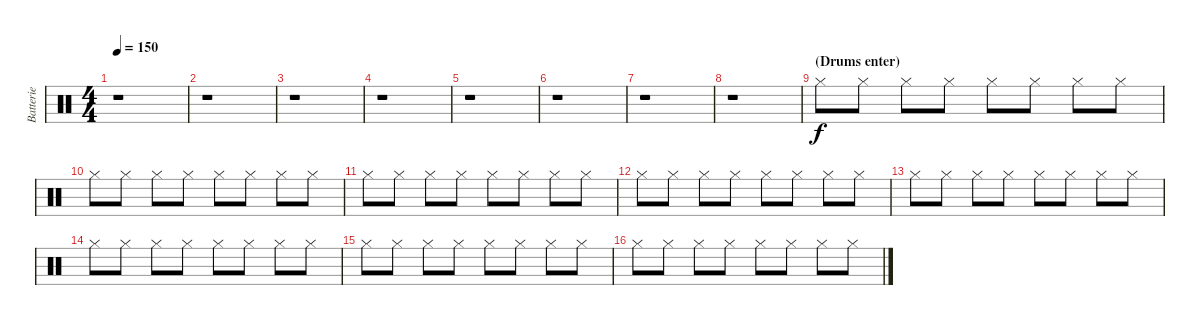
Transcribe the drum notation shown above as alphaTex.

\track ("Batterie" "Batterie") {instrument percussion}
\staff {score}
\articulation defaults
\ts (4 4)
\tempo 150
\clef neutral
\ks c
r.1{dy f} |
r.1 |
r.1 |
r.1 |
r.1 |
r.1 |
r.1 |
r.1 |
\section ("" "(Drums enter)")
"Hi-Hat (closed)".8{volume 12} "Hi-Hat (closed)".8 "Hi-Hat (closed)".8 "Hi-Hat (closed)".8 "Hi-Hat (closed)".8 "Hi-Hat (closed)".8 "Hi-Hat (closed)".8 "Hi-Hat (closed)".8 |
"Hi-Hat (closed)".8 "Hi-Hat (closed)".8 "Hi-Hat (closed)".8 "Hi-Hat (closed)".8 "Hi-Hat (closed)".8 "Hi-Hat (closed)".8 "Hi-Hat (closed)".8 "Hi-Hat (closed)".8 |
"Hi-Hat (closed)".8 "Hi-Hat (closed)".8 "Hi-Hat (closed)".8 "Hi-Hat (closed)".8 "Hi-Hat (closed)".8 "Hi-Hat (closed)".8 "Hi-Hat (closed)".8 "Hi-Hat (closed)".8 |
"Hi-Hat (closed)".8 "Hi-Hat (closed)".8 "Hi-Hat (closed)".8 "Hi-Hat (closed)".8 "Hi-Hat (closed)".8 "Hi-Hat (closed)".8 "Hi-Hat (closed)".8 "Hi-Hat (closed)".8 |
"Hi-Hat (closed)".8 "Hi-Hat (closed)".8 "Hi-Hat (closed)".8 "Hi-Hat (closed)".8 "Hi-Hat (closed)".8 "Hi-Hat (closed)".8 "Hi-Hat (closed)".8 "Hi-Hat (closed)".8 |
"Hi-Hat (closed)".8 "Hi-Hat (closed)".8 "Hi-Hat (closed)".8 "Hi-Hat (closed)".8 "Hi-Hat (closed)".8 "Hi-Hat (closed)".8 "Hi-Hat (closed)".8 "Hi-Hat (closed)".8 |
"Hi-Hat (closed)".8 "Hi-Hat (closed)".8 "Hi-Hat (closed)".8 "Hi-Hat (closed)".8 "Hi-Hat (closed)".8 "Hi-Hat (closed)".8 "Hi-Hat (closed)".8 "Hi-Hat (closed)".8 |
"Hi-Hat (closed)".8 "Hi-Hat (closed)".8 "Hi-Hat (closed)".8 "Hi-Hat (closed)".8 "Hi-Hat (closed)".8 "Hi-Hat (closed)".8 "Hi-Hat (closed)".8 "Hi-Hat (closed)".8
